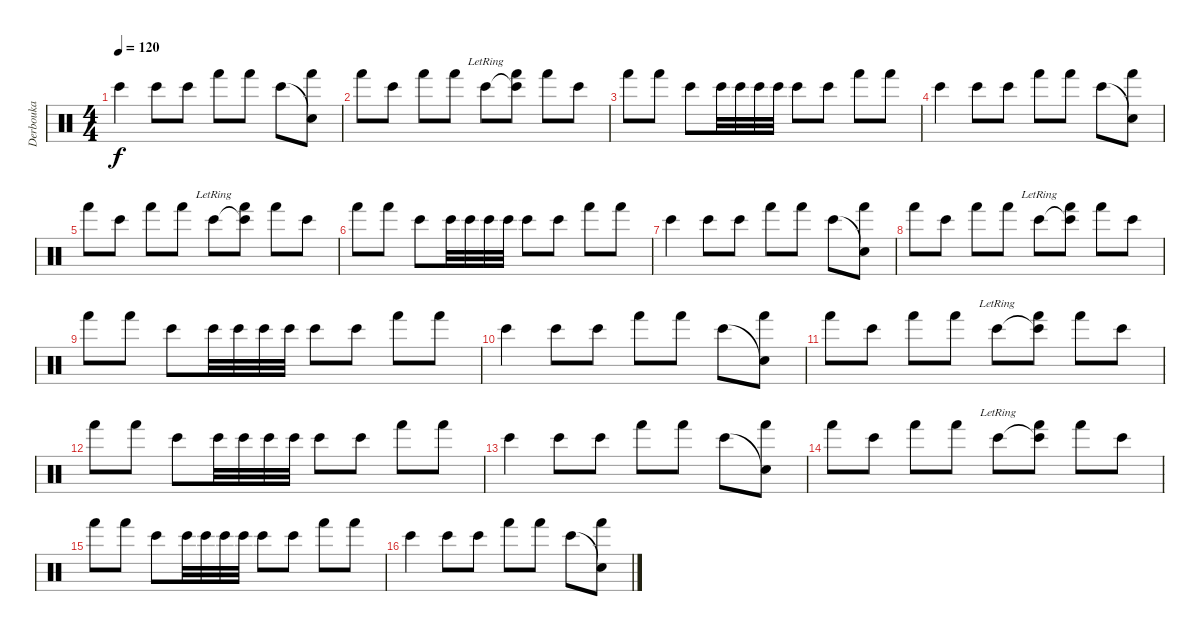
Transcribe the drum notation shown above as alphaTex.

\track ("Derbouka" "Derbouka") {instrument percussion}
\staff {score}
\articulation defaults
\ts (4 4)
\tempo 120
\clef neutral
\ks c "Bongo High (hit)".4{dy f} "Bongo High (hit)".8 "Bongo High (hit)".8 "Hand (hit)".8 "Hand (hit)".8 "Bongo High (hit)".8
("Snare (hit)"{t} "Hand (hit)").8 |
"Hand (hit)".8 "Bongo High (hit)".8 "Hand (hit)".8 "Hand (hit)".8 "Bongo High (hit)"{lr}.8 ("Bongo High (hit)"{t} "Hand (hit)").8 "Hand (hit)".8 "Bongo High (hit)".8 |
"Hand (hit)".8 "Hand (hit)".8 "Bongo High (hit)".8 "Bongo High (hit)".32 "Bongo High (hit)".32 "Bongo High (hit)".32 "Bongo High (hit)".32 "Bongo High (hit)".8 "Bongo High (hit)".8 "Hand (hit)".8 "Hand (hit)".8 |
"Bongo High (hit)".4 "Bongo High (hit)".8 "Bongo High (hit)".8 "Hand (hit)".8 "Hand (hit)".8 "Bongo High (hit)".8 ("Snare (hit)"{t} "Hand (hit)").8 |
"Hand (hit)".8 "Bongo High (hit)".8 "Hand (hit)".8 "Hand (hit)".8 "Bongo High (hit)"{lr}.8 ("Bongo High (hit)"{t} "Hand (hit)").8 "Hand (hit)".8 "Bongo High (hit)".8 |
"Hand (hit)".8 "Hand (hit)".8 "Bongo High (hit)".8 "Bongo High (hit)".32 "Bongo High (hit)".32 "Bongo High (hit)".32 "Bongo High (hit)".32 "Bongo High (hit)".8 "Bongo High (hit)".8 "Hand (hit)".8 "Hand (hit)".8 |
"Bongo High (hit)".4 "Bongo High (hit)".8 "Bongo High (hit)".8 "Hand (hit)".8 "Hand (hit)".8 "Bongo High (hit)".8 ("Snare (hit)"{t} "Hand (hit)").8 |
"Hand (hit)".8 "Bongo High (hit)".8 "Hand (hit)".8 "Hand (hit)".8 "Bongo High (hit)"{lr}.8 ("Bongo High (hit)"{t} "Hand (hit)").8 "Hand (hit)".8 "Bongo High (hit)".8 |
"Hand (hit)".8 "Hand (hit)".8 "Bongo High (hit)".8 "Bongo High (hit)".32 "Bongo High (hit)".32 "Bongo High (hit)".32 "Bongo High (hit)".32 "Bongo High (hit)".8 "Bongo High (hit)".8 "Hand (hit)".8 "Hand (hit)".8 |
"Bongo High (hit)".4 "Bongo High (hit)".8 "Bongo High (hit)".8 "Hand (hit)".8 "Hand (hit)".8 "Bongo High (hit)".8 ("Snare (hit)"{t} "Hand (hit)").8 |
"Hand (hit)".8 "Bongo High (hit)".8 "Hand (hit)".8 "Hand (hit)".8 "Bongo High (hit)"{lr}.8 ("Bongo High (hit)"{t} "Hand (hit)").8 "Hand (hit)".8 "Bongo High (hit)".8 |
"Hand (hit)".8 "Hand (hit)".8 "Bongo High (hit)".8 "Bongo High (hit)".32 "Bongo High (hit)".32 "Bongo High (hit)".32 "Bongo High (hit)".32 "Bongo High (hit)".8 "Bongo High (hit)".8 "Hand (hit)".8 "Hand (hit)".8 |
"Bongo High (hit)".4 "Bongo High (hit)".8 "Bongo High (hit)".8 "Hand (hit)".8 "Hand (hit)".8 "Bongo High (hit)".8 ("Snare (hit)"{t} "Hand (hit)").8 |
"Hand (hit)".8 "Bongo High (hit)".8 "Hand (hit)".8 "Hand (hit)".8 "Bongo High (hit)"{lr}.8 ("Bongo High (hit)"{t} "Hand (hit)").8 "Hand (hit)".8 "Bongo High (hit)".8 |
"Hand (hit)".8 "Hand (hit)".8 "Bongo High (hit)".8 "Bongo High (hit)".32 "Bongo High (hit)".32 "Bongo High (hit)".32 "Bongo High (hit)".32 "Bongo High (hit)".8 "Bongo High (hit)".8 "Hand (hit)".8 "Hand (hit)".8 |
"Bongo High (hit)".4 "Bongo High (hit)".8 "Bongo High (hit)".8 "Hand (hit)".8 "Hand (hit)".8 "Bongo High (hit)".8 ("Snare (hit)"{t} "Hand (hit)").8
